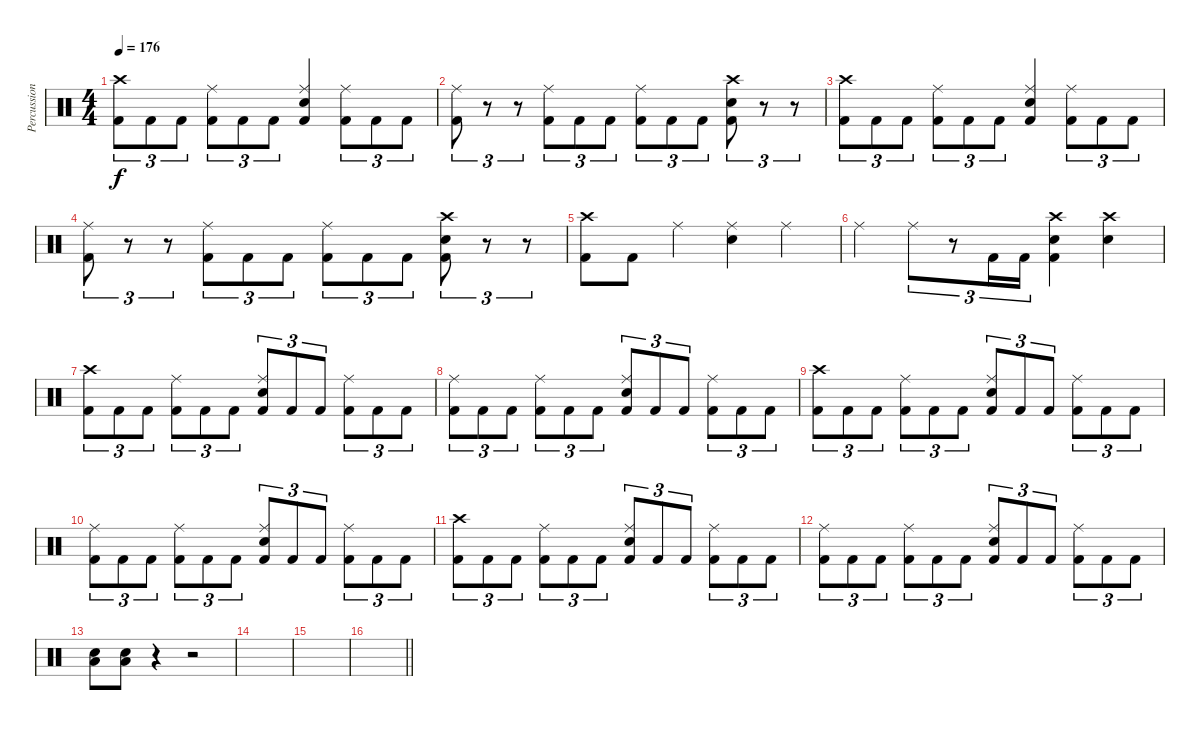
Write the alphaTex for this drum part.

\track ("Percussion" "Percussion") {instrument percussion}
\staff {score}
\articulation defaults
\ts (4 4)
\tempo 176
\clef neutral
\ks c
("Crash high (hit)" "Kick (hit) 2").8{tu (3 2) dy f} "Kick (hit) 2".8{tu (3 2)} "Kick (hit) 2".8{tu (3 2)} ("Ride (middle)" "Kick (hit) 2").8{tu (3 2)} "Kick (hit) 2".8{tu (3 2)} "Kick (hit) 2".8{tu (3 2)} ("Ride (middle)" "Snare (hit) 2" "Kick (hit) 2").4 ("Ride (middle)" "Kick (hit) 2").8{tu (3 2)} "Kick (hit) 2".8{tu (3 2)} "Kick (hit) 2".8{tu (3 2)} |
("Ride (middle)" "Kick (hit) 2").8{tu (3 2)} r.8{tu (3 2)} r.8{tu (3 2)} ("Ride (middle)" "Kick (hit) 2").8{tu (3 2)} "Kick (hit) 2".8{tu (3 2)} "Kick (hit) 2".8{tu (3 2)} ("Ride (middle)" "Kick (hit) 2").8{tu (3 2)} "Kick (hit) 2".8{tu (3 2)} "Kick (hit) 2".8{tu (3 2)} ("Crash high (hit)" "Snare (hit) 2" "Kick (hit) 2").8{tu (3 2)} r.8{tu (3 2)} r.8{tu (3 2)} |
("Crash high (hit)" "Kick (hit) 2").8{tu (3 2)} "Kick (hit) 2".8{tu (3 2)} "Kick (hit) 2".8{tu (3 2)} ("Ride (middle)" "Kick (hit) 2").8{tu (3 2)} "Kick (hit) 2".8{tu (3 2)} "Kick (hit) 2".8{tu (3 2)} ("Ride (middle)" "Snare (hit) 2" "Kick (hit) 2").4 ("Ride (middle)" "Kick (hit) 2").8{tu (3 2)} "Kick (hit) 2".8{tu (3 2)} "Kick (hit) 2".8{tu (3 2)} |
("Ride (middle)" "Kick (hit) 2").8{tu (3 2)} r.8{tu (3 2)} r.8{tu (3 2)} ("Ride (middle)" "Kick (hit) 2").8{tu (3 2)} "Kick (hit) 2".8{tu (3 2)} "Kick (hit) 2".8{tu (3 2)} ("Ride (middle)" "Kick (hit) 2").8{tu (3 2)} "Kick (hit) 2".8{tu (3 2)} "Kick (hit) 2".8{tu (3 2)} ("Crash high (hit)" "Snare (hit) 2" "Kick (hit) 2").8{tu (3 2)} r.8{tu (3 2)} r.8{tu (3 2)} |
("Crash high (hit)" "Kick (hit) 2").8 "Kick (hit) 2".8 "Ride (middle)".4 ("Ride (middle)" "Snare (hit) 2").4 "Ride (middle)".4 |
"Ride (middle)".4 "Ride (middle)".8{tu (3 2)} r.8{tu (3 2)} "Kick (hit) 2".16{tu (3 2)} "Kick (hit) 2".16{tu (3 2)} ("Crash high (hit)" "Snare (hit) 2" "Kick (hit) 2").4 ("Crash high (hit)" "Snare (hit) 2").4 |
("Crash high (hit)" "Kick (hit) 2").8{tu (3 2)} "Kick (hit) 2".8{tu (3 2)} "Kick (hit) 2".8{tu (3 2)} ("Ride (middle)" "Kick (hit) 2").8{tu (3 2)} "Kick (hit) 2".8{tu (3 2)} "Kick (hit) 2".8{tu (3 2)} ("Ride (middle)" "Snare (hit) 2" "Kick (hit) 2").8{tu (3 2)} "Kick (hit) 2".8{tu (3 2)} "Kick (hit) 2".8{tu (3 2)} ("Ride (middle)" "Kick (hit) 2").8{tu (3 2)} "Kick (hit) 2".8{tu (3 2)} "Kick (hit) 2".8{tu (3 2)} |
("Ride (middle)" "Kick (hit) 2").8{tu (3 2)} "Kick (hit) 2".8{tu (3 2)} "Kick (hit) 2".8{tu (3 2)} ("Ride (middle)" "Kick (hit) 2").8{tu (3 2)} "Kick (hit) 2".8{tu (3 2)} "Kick (hit) 2".8{tu (3 2)} ("Ride (middle)" "Snare (hit) 2" "Kick (hit) 2").8{tu (3 2)} "Kick (hit) 2".8{tu (3 2)} "Kick (hit) 2".8{tu (3 2)} ("Ride (middle)" "Kick (hit) 2").8{tu (3 2)} "Kick (hit) 2".8{tu (3 2)} "Kick (hit) 2".8{tu (3 2)} |
("Crash high (hit)" "Kick (hit) 2").8{tu (3 2)} "Kick (hit) 2".8{tu (3 2)} "Kick (hit) 2".8{tu (3 2)} ("Ride (middle)" "Kick (hit) 2").8{tu (3 2)} "Kick (hit) 2".8{tu (3 2)} "Kick (hit) 2".8{tu (3 2)} ("Ride (middle)" "Snare (hit) 2" "Kick (hit) 2").8{tu (3 2)} "Kick (hit) 2".8{tu (3 2)} "Kick (hit) 2".8{tu (3 2)} ("Ride (middle)" "Kick (hit) 2").8{tu (3 2)} "Kick (hit) 2".8{tu (3 2)} "Kick (hit) 2".8{tu (3 2)} |
("Ride (middle)" "Kick (hit) 2").8{tu (3 2)} "Kick (hit) 2".8{tu (3 2)} "Kick (hit) 2".8{tu (3 2)} ("Ride (middle)" "Kick (hit) 2").8{tu (3 2)} "Kick (hit) 2".8{tu (3 2)} "Kick (hit) 2".8{tu (3 2)} ("Ride (middle)" "Snare (hit) 2" "Kick (hit) 2").8{tu (3 2)} "Kick (hit) 2".8{tu (3 2)} "Kick (hit) 2".8{tu (3 2)} ("Ride (middle)" "Kick (hit) 2").8{tu (3 2)} "Kick (hit) 2".8{tu (3 2)} "Kick (hit) 2".8{tu (3 2)} |
("Crash high (hit)" "Kick (hit) 2").8{tu (3 2)} "Kick (hit) 2".8{tu (3 2)} "Kick (hit) 2".8{tu (3 2)} ("Ride (middle)" "Kick (hit) 2").8{tu (3 2)} "Kick (hit) 2".8{tu (3 2)} "Kick (hit) 2".8{tu (3 2)} ("Ride (middle)" "Snare (hit) 2" "Kick (hit) 2").8{tu (3 2)} "Kick (hit) 2".8{tu (3 2)} "Kick (hit) 2".8{tu (3 2)} ("Ride (middle)" "Kick (hit) 2").8{tu (3 2)} "Kick (hit) 2".8{tu (3 2)} "Kick (hit) 2".8{tu (3 2)} |
("Ride (middle)" "Kick (hit) 2").8{tu (3 2)} "Kick (hit) 2".8{tu (3 2)} "Kick (hit) 2".8{tu (3 2)} ("Ride (middle)" "Kick (hit) 2").8{tu (3 2)} "Kick (hit) 2".8{tu (3 2)} "Kick (hit) 2".8{tu (3 2)} ("Ride (middle)" "Snare (hit) 2" "Kick (hit) 2").8{tu (3 2)} "Kick (hit) 2".8{tu (3 2)} "Kick (hit) 2".8{tu (3 2)} ("Ride (middle)" "Kick (hit) 2").8{tu (3 2)} "Kick (hit) 2".8{tu (3 2)} "Kick (hit) 2".8{tu (3 2)} |
("Snare (hit) 2" "Low Floor Tom (hit)").8 ("Snare (hit) 2" "Low Floor Tom (hit)").8 r.4 r.2 |
|
|
\barLineRight lightlight
